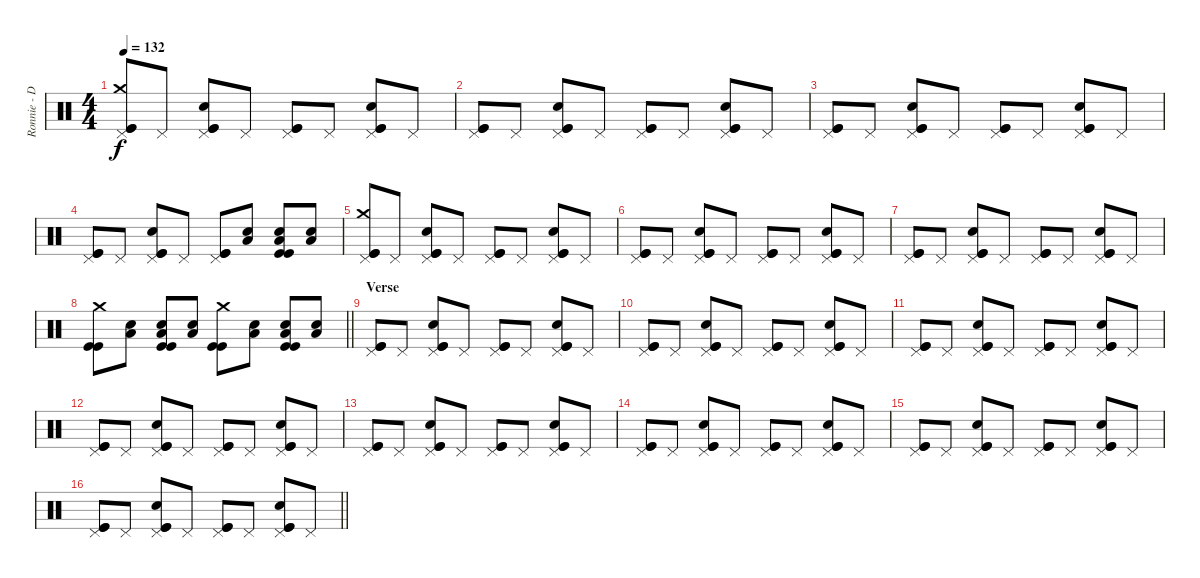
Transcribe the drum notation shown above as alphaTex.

\track ("Ronnie - Drums" "Ronnie - D") {instrument percussion}
\staff {score}
\articulation defaults
\ts (4 4)
\tempo 132
\clef neutral
\ks c
("Pedal Hi-Hat (hit)" "Crash medium (hit)" "Kick (hit)" "Kick (hit)").8{dy f} "Pedal Hi-Hat (hit)".8 ("Pedal Hi-Hat (hit)" "Electric Snare (hit)" "Kick (hit)" "Kick (hit)").8 "Pedal Hi-Hat (hit)".8 ("Pedal Hi-Hat (hit)" "Kick (hit)" "Kick (hit)").8 "Pedal Hi-Hat (hit)".8 ("Pedal Hi-Hat (hit)" "Electric Snare (hit)" "Kick (hit)" "Kick (hit)").8 "Pedal Hi-Hat (hit)".8 |
("Pedal Hi-Hat (hit)" "Kick (hit)" "Kick (hit)").8 "Pedal Hi-Hat (hit)".8 ("Pedal Hi-Hat (hit)" "Electric Snare (hit)" "Kick (hit)" "Kick (hit)").8 "Pedal Hi-Hat (hit)".8 ("Pedal Hi-Hat (hit)" "Kick (hit)" "Kick (hit)").8 "Pedal Hi-Hat (hit)".8 ("Pedal Hi-Hat (hit)" "Electric Snare (hit)" "Kick (hit)" "Kick (hit)").8 "Pedal Hi-Hat (hit)".8 |
("Pedal Hi-Hat (hit)" "Kick (hit)" "Kick (hit)").8 "Pedal Hi-Hat (hit)".8 ("Pedal Hi-Hat (hit)" "Electric Snare (hit)" "Kick (hit)" "Kick (hit)").8 "Pedal Hi-Hat (hit)".8 ("Pedal Hi-Hat (hit)" "Kick (hit)" "Kick (hit)").8 "Pedal Hi-Hat (hit)".8 ("Pedal Hi-Hat (hit)" "Electric Snare (hit)" "Kick (hit)" "Kick (hit)").8 "Pedal Hi-Hat (hit)".8 |
("Pedal Hi-Hat (hit)" "Kick (hit)" "Kick (hit)").8 "Pedal Hi-Hat (hit)".8 ("Pedal Hi-Hat (hit)" "Electric Snare (hit)" "Kick (hit)" "Kick (hit)").8 "Pedal Hi-Hat (hit)".8 ("Pedal Hi-Hat (hit)" "Kick (hit)" "Kick (hit)").8 ("Low Floor Tom (hit)" "Electric Snare (hit)").8 ("Low Floor Tom (hit)" "Electric Snare (hit)" "Kick (hit)" "Kick (hit)").8 ("Low Floor Tom (hit)" "Electric Snare (hit)").8 |
("Pedal Hi-Hat (hit)" "Crash medium (hit)" "Kick (hit)" "Kick (hit)").8 "Pedal Hi-Hat (hit)".8 ("Pedal Hi-Hat (hit)" "Electric Snare (hit)" "Kick (hit)" "Kick (hit)").8 "Pedal Hi-Hat (hit)".8 ("Pedal Hi-Hat (hit)" "Kick (hit)" "Kick (hit)").8 "Pedal Hi-Hat (hit)".8 ("Pedal Hi-Hat (hit)" "Electric Snare (hit)" "Kick (hit)" "Kick (hit)").8 "Pedal Hi-Hat (hit)".8 |
("Pedal Hi-Hat (hit)" "Kick (hit)" "Kick (hit)").8 "Pedal Hi-Hat (hit)".8 ("Pedal Hi-Hat (hit)" "Electric Snare (hit)" "Kick (hit)" "Kick (hit)").8 "Pedal Hi-Hat (hit)".8 ("Pedal Hi-Hat (hit)" "Kick (hit)" "Kick (hit)").8 "Pedal Hi-Hat (hit)".8 ("Pedal Hi-Hat (hit)" "Electric Snare (hit)" "Kick (hit)" "Kick (hit)").8 "Pedal Hi-Hat (hit)".8 |
("Pedal Hi-Hat (hit)" "Kick (hit)" "Kick (hit)").8 "Pedal Hi-Hat (hit)".8 ("Pedal Hi-Hat (hit)" "Electric Snare (hit)" "Kick (hit)" "Kick (hit)").8 "Pedal Hi-Hat (hit)".8 ("Pedal Hi-Hat (hit)" "Kick (hit)" "Kick (hit)").8 "Pedal Hi-Hat (hit)".8 ("Pedal Hi-Hat (hit)" "Electric Snare (hit)" "Kick (hit)" "Kick (hit)").8 "Pedal Hi-Hat (hit)".8 |
\barLineRight lightlight
("Crash medium (hit)" "Kick (hit)" "Kick (hit)").8 ("Electric Snare (hit)" "Low Floor Tom (hit)").8 ("Electric Snare (hit)" "Low Floor Tom (hit)" "Kick (hit)" "Kick (hit)").8 ("Electric Snare (hit)" "Low Floor Tom (hit)").8 ("Crash medium (hit)" "Kick (hit)" "Kick (hit)").8 ("Electric Snare (hit)" "Low Floor Tom (hit)").8 ("Electric Snare (hit)" "Low Floor Tom (hit)" "Kick (hit)" "Kick (hit)").8 ("Electric Snare (hit)" "Low Floor Tom (hit)").8 |
\section ("" "Verse")
("Pedal Hi-Hat (hit)" "Kick (hit)" "Kick (hit)").8 "Pedal Hi-Hat (hit)".8 ("Pedal Hi-Hat (hit)" "Electric Snare (hit)" "Kick (hit)" "Kick (hit)").8 "Pedal Hi-Hat (hit)".8 ("Pedal Hi-Hat (hit)" "Kick (hit)" "Kick (hit)").8 "Pedal Hi-Hat (hit)".8 ("Pedal Hi-Hat (hit)" "Electric Snare (hit)" "Kick (hit)" "Kick (hit)").8 "Pedal Hi-Hat (hit)".8 |
("Pedal Hi-Hat (hit)" "Kick (hit)" "Kick (hit)").8 "Pedal Hi-Hat (hit)".8 ("Pedal Hi-Hat (hit)" "Electric Snare (hit)" "Kick (hit)" "Kick (hit)").8 "Pedal Hi-Hat (hit)".8 ("Pedal Hi-Hat (hit)" "Kick (hit)" "Kick (hit)").8 "Pedal Hi-Hat (hit)".8 ("Pedal Hi-Hat (hit)" "Electric Snare (hit)" "Kick (hit)" "Kick (hit)").8 "Pedal Hi-Hat (hit)".8 |
("Pedal Hi-Hat (hit)" "Kick (hit)" "Kick (hit)").8 "Pedal Hi-Hat (hit)".8 ("Pedal Hi-Hat (hit)" "Electric Snare (hit)" "Kick (hit)" "Kick (hit)").8 "Pedal Hi-Hat (hit)".8 ("Pedal Hi-Hat (hit)" "Kick (hit)" "Kick (hit)").8 "Pedal Hi-Hat (hit)".8 ("Pedal Hi-Hat (hit)" "Electric Snare (hit)" "Kick (hit)" "Kick (hit)").8 "Pedal Hi-Hat (hit)".8 |
("Pedal Hi-Hat (hit)" "Kick (hit)" "Kick (hit)").8 "Pedal Hi-Hat (hit)".8 ("Pedal Hi-Hat (hit)" "Electric Snare (hit)" "Kick (hit)" "Kick (hit)").8 "Pedal Hi-Hat (hit)".8 ("Pedal Hi-Hat (hit)" "Kick (hit)" "Kick (hit)").8 "Pedal Hi-Hat (hit)".8 ("Pedal Hi-Hat (hit)" "Electric Snare (hit)" "Kick (hit)" "Kick (hit)").8 "Pedal Hi-Hat (hit)".8 |
("Pedal Hi-Hat (hit)" "Kick (hit)" "Kick (hit)").8 "Pedal Hi-Hat (hit)".8 ("Pedal Hi-Hat (hit)" "Electric Snare (hit)" "Kick (hit)" "Kick (hit)").8 "Pedal Hi-Hat (hit)".8 ("Pedal Hi-Hat (hit)" "Kick (hit)" "Kick (hit)").8 "Pedal Hi-Hat (hit)".8 ("Pedal Hi-Hat (hit)" "Electric Snare (hit)" "Kick (hit)" "Kick (hit)").8 "Pedal Hi-Hat (hit)".8 |
("Pedal Hi-Hat (hit)" "Kick (hit)" "Kick (hit)").8 "Pedal Hi-Hat (hit)".8 ("Pedal Hi-Hat (hit)" "Electric Snare (hit)" "Kick (hit)" "Kick (hit)").8 "Pedal Hi-Hat (hit)".8 ("Pedal Hi-Hat (hit)" "Kick (hit)" "Kick (hit)").8 "Pedal Hi-Hat (hit)".8 ("Pedal Hi-Hat (hit)" "Electric Snare (hit)" "Kick (hit)" "Kick (hit)").8 "Pedal Hi-Hat (hit)".8 |
("Pedal Hi-Hat (hit)" "Kick (hit)" "Kick (hit)").8 "Pedal Hi-Hat (hit)".8 ("Pedal Hi-Hat (hit)" "Electric Snare (hit)" "Kick (hit)" "Kick (hit)").8 "Pedal Hi-Hat (hit)".8 ("Pedal Hi-Hat (hit)" "Kick (hit)" "Kick (hit)").8 "Pedal Hi-Hat (hit)".8 ("Pedal Hi-Hat (hit)" "Electric Snare (hit)" "Kick (hit)" "Kick (hit)").8 "Pedal Hi-Hat (hit)".8 |
\barLineRight lightlight
("Pedal Hi-Hat (hit)" "Kick (hit)" "Kick (hit)").8 "Pedal Hi-Hat (hit)".8 ("Pedal Hi-Hat (hit)" "Electric Snare (hit)" "Kick (hit)" "Kick (hit)").8 "Pedal Hi-Hat (hit)".8 ("Pedal Hi-Hat (hit)" "Kick (hit)" "Kick (hit)").8 "Pedal Hi-Hat (hit)".8 ("Pedal Hi-Hat (hit)" "Electric Snare (hit)" "Kick (hit)" "Kick (hit)").8 "Pedal Hi-Hat (hit)".8
